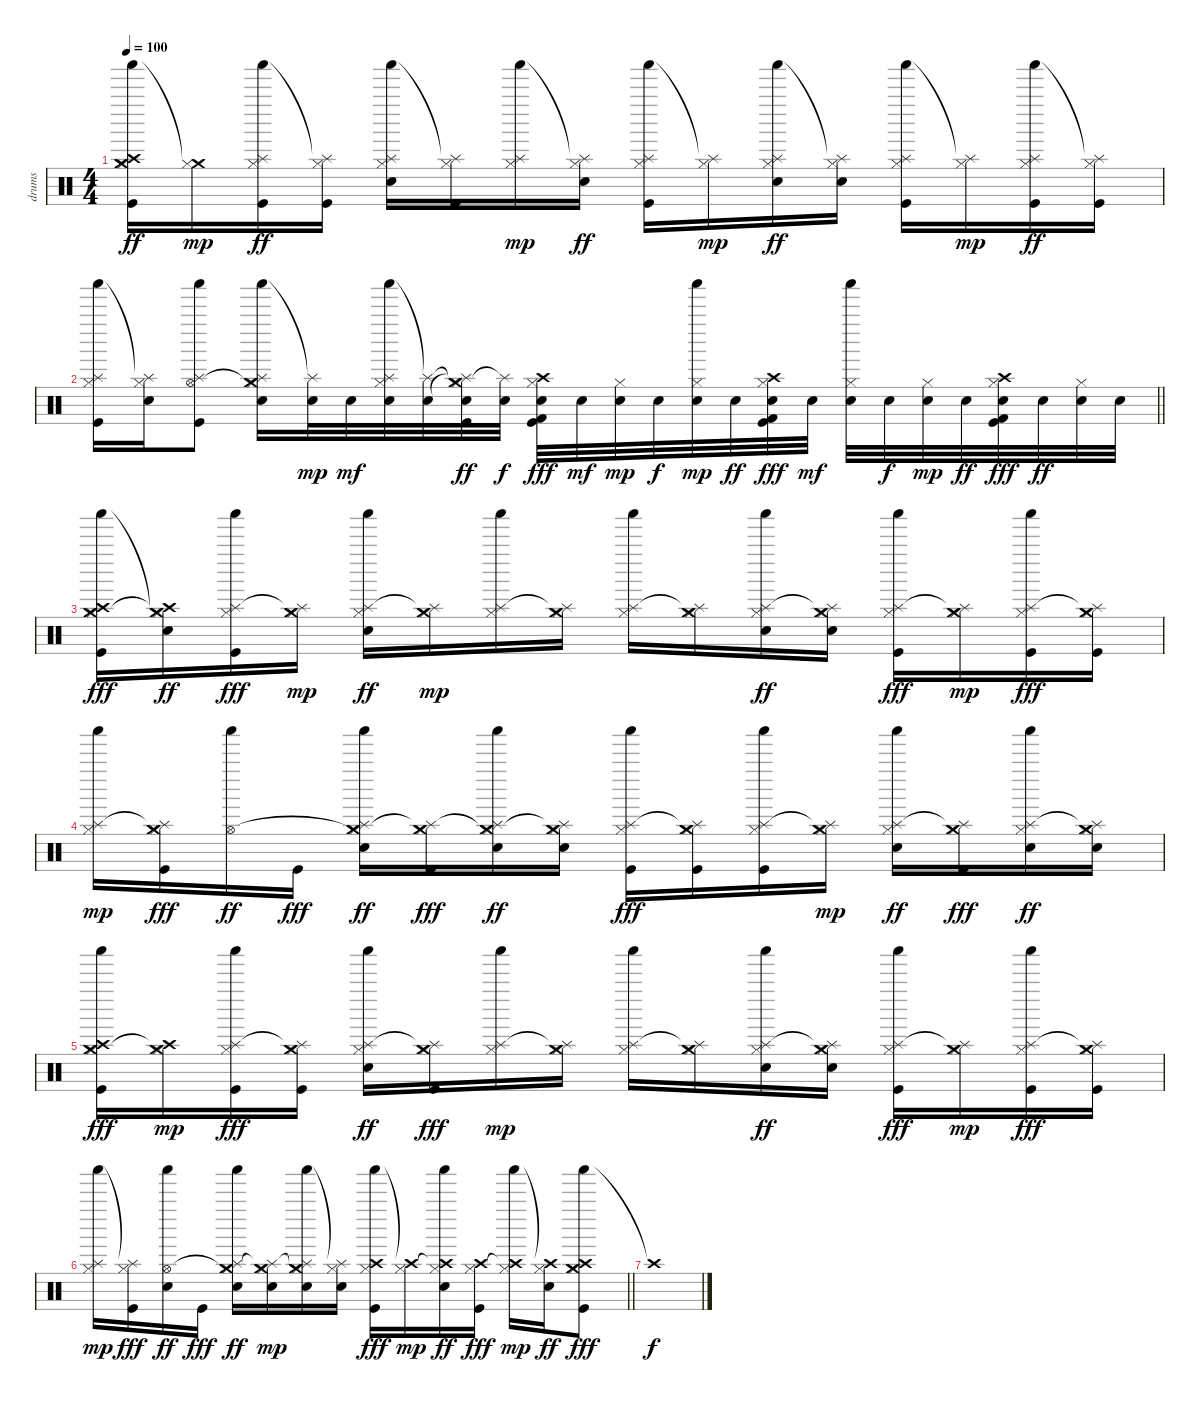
\track ("drums" "drums") {instrument percussion}
\staff {score}
\articulation defaults
\ts (4 4)
\tempo 100
\clef neutral
\ks c
("Shaker (hit)" "Crash medium (hit)" "Crash high (hit)" "Hi-Hat (closed)" "Kick (hit)").16{dy ff} ("Crash medium (hit)"{t} "Hi-Hat (closed)").16{dy mp} ("Shaker (hit)" "Splash (hit)" "Hi-Hat (closed)" "Kick (hit)").16{dy ff} ("Splash (hit)"{t} "Hi-Hat (closed)" "Kick (hit)").16 ("Shaker (hit)" "Splash (hit)" "Hi-Hat (closed)" "Electric Snare (hit)").16 ("Splash (hit)"{t} "Hi-Hat (closed)" "Kick (hit)").16 ("Shaker (hit)" "Splash (hit)" "Hi-Hat (closed)").16{dy mp} ("Splash (hit)"{t} "Hi-Hat (closed)" "Electric Snare (hit)").16{dy ff} ("Shaker (hit)" "Splash (hit)" "Hi-Hat (closed)" "Kick (hit)").16 ("Splash (hit)"{t} "Hi-Hat (closed)").16{dy mp} ("Shaker (hit)" "Splash (hit)" "Hi-Hat (closed)" "Electric Snare (hit)").16{dy ff} ("Splash (hit)"{t} "Hi-Hat (closed)" "Electric Snare (hit)").16 ("Shaker (hit)" "Splash (hit)" "Hi-Hat (closed)" "Kick (hit)").16 ("Splash (hit)"{t} "Hi-Hat (closed)").16{dy mp} ("Shaker (hit)" "Splash (hit)" "Hi-Hat (closed)" "Kick (hit)").16{dy ff} ("Splash (hit)"{t} "Hi-Hat (closed)" "Kick (hit)").16 |
\barLineRight lightlight
("Shaker (hit)" "Splash (hit)" "Hi-Hat (closed)" "Kick (hit)").16 ("Splash (hit)"{t} "Hi-Hat (closed)" "Electric Snare (hit)").16 ("Shaker (hit)" "Hi-Hat (open)" "Splash (hit)" "Kick (hit)").8 ("Shaker (hit)" "Crash medium (hit)"{t} "Splash (hit)" "Hi-Hat (closed)" "Electric Snare (hit)").16 ("Splash (hit)"{t} "Electric Snare (hit)").32{dy mp} "Electric Snare (hit)".32{dy mf} ("Shaker (hit)" "Splash (hit)" "Hi-Hat (closed)" "Electric Snare (hit)").32 ("Splash (hit)"{t} "Electric Snare (hit)").32 ("Crash medium (hit)"{t} "Splash (hit)"{t} "Hi-Hat (closed)" "Electric Snare (hit)" "Kick (hit)").32{dy ff} ("Splash (hit)"{t} "Electric Snare (hit)").32{dy f} ("Crash high (hit)" "Kick (hit) 2" "Hi-Hat (closed)" "Electric Snare (hit)" "Kick (hit)").32{dy fff} "Electric Snare (hit)".32{dy mf} ("Hi-Hat (closed)" "Electric Snare (hit)").32{dy mp} "Electric Snare (hit)".32{dy f} ("Shaker (hit)" "Hi-Hat (closed)" "Electric Snare (hit)").32{dy mp} "Electric Snare (hit)".32{dy ff} ("Crash high (hit)" "Kick (hit) 2" "Hi-Hat (closed)" "Electric Snare (hit)" "Kick (hit)").32{dy fff} "Electric Snare (hit)".32{dy mf} ("Shaker (hit)" "Hi-Hat (closed)" "Electric Snare (hit)").32 "Electric Snare (hit)".32{dy f} ("Hi-Hat (closed)" "Electric Snare (hit)").32{dy mp} "Electric Snare (hit)".32{dy ff} ("Crash high (hit)" "Kick (hit) 2" "Hi-Hat (closed)" "Electric Snare (hit)" "Kick (hit)").32{dy fff} "Electric Snare (hit)".32{dy ff} ("Hi-Hat (closed)" "Electric Snare (hit)").32 "Electric Snare (hit)".32 |
("Shaker (hit)" "Crash medium (hit)" "Crash high (hit)" "Hi-Hat (closed)" "Kick (hit)").16{dy fff} ("Crash medium (hit)"{t} "Crash high (hit)"{t} "Hi-Hat (closed)" "Electric Snare (hit)").16{dy ff} ("Shaker (hit)" "Splash (hit)" "Hi-Hat (closed)" "Kick (hit)").16{dy fff} ("Crash medium (hit)" "Splash (hit)"{t} "Hi-Hat (closed)").16{dy mp} ("Shaker (hit)" "Splash (hit)" "Hi-Hat (closed)" "Electric Snare (hit)").16{dy ff} ("Crash medium (hit)" "Splash (hit)"{t} "Hi-Hat (closed)").16{dy mp} ("Shaker (hit)" "Splash (hit)" "Hi-Hat (closed)").16 ("Crash medium (hit)" "Splash (hit)"{t} "Hi-Hat (closed)").16 ("Shaker (hit)" "Splash (hit)" "Hi-Hat (closed)").16 ("Crash medium (hit)" "Splash (hit)"{t} "Hi-Hat (closed)").16 ("Shaker (hit)" "Splash (hit)" "Hi-Hat (closed)" "Electric Snare (hit)").16{dy ff} ("Crash medium (hit)" "Splash (hit)"{t} "Hi-Hat (closed)" "Electric Snare (hit)").16 ("Shaker (hit)" "Splash (hit)" "Hi-Hat (closed)" "Kick (hit)").16{dy fff} ("Crash medium (hit)" "Splash (hit)"{t} "Hi-Hat (closed)").16{dy mp} ("Shaker (hit)" "Splash (hit)" "Hi-Hat (closed)" "Kick (hit)").16{dy fff} ("Crash medium (hit)" "Splash (hit)"{t} "Hi-Hat (closed)" "Kick (hit)").16 |
("Shaker (hit)" "Splash (hit)" "Hi-Hat (closed)").16{dy mp} ("Crash medium (hit)" "Splash (hit)"{t} "Hi-Hat (closed)" "Kick (hit)").16{dy fff} ("Shaker (hit)" "Hi-Hat (open)").16{dy ff} "Kick (hit)".16{dy fff} ("Shaker (hit)" "Crash medium (hit)"{t} "Splash (hit)" "Hi-Hat (closed)" "Electric Snare (hit)").16{dy ff} ("Crash medium (hit)" "Splash (hit)"{t} "Hi-Hat (closed)" "Kick (hit)").16{dy fff} ("Shaker (hit)" "Crash medium (hit)"{t} "Splash (hit)" "Hi-Hat (closed)" "Electric Snare (hit)").16{dy ff} ("Crash medium (hit)" "Splash (hit)"{t} "Hi-Hat (closed)" "Electric Snare (hit)").16 ("Shaker (hit)" "Splash (hit)" "Hi-Hat (closed)" "Kick (hit)").16{dy fff} ("Crash medium (hit)" "Splash (hit)"{t} "Hi-Hat (closed)" "Kick (hit)").16 ("Shaker (hit)" "Splash (hit)" "Hi-Hat (closed)" "Kick (hit)").16 ("Crash medium (hit)" "Splash (hit)"{t} "Hi-Hat (closed)").16{dy mp} ("Shaker (hit)" "Splash (hit)" "Hi-Hat (closed)" "Electric Snare (hit)").16{dy ff} ("Crash medium (hit)" "Splash (hit)"{t} "Hi-Hat (closed)" "Kick (hit)").16{dy fff} ("Shaker (hit)" "Splash (hit)" "Hi-Hat (closed)" "Electric Snare (hit)").16{dy ff} ("Crash medium (hit)" "Splash (hit)"{t} "Hi-Hat (closed)" "Electric Snare (hit)").16 |
("Shaker (hit)" "Crash medium (hit)" "Crash high (hit)" "Hi-Hat (closed)" "Kick (hit)").16{dy fff} ("Crash medium (hit)" "Crash high (hit)"{t} "Hi-Hat (closed)").16{dy mp} ("Shaker (hit)" "Splash (hit)" "Hi-Hat (closed)" "Kick (hit)").16{dy fff} ("Crash medium (hit)" "Splash (hit)"{t} "Hi-Hat (closed)" "Kick (hit)").16 ("Shaker (hit)" "Splash (hit)" "Hi-Hat (closed)" "Electric Snare (hit)").16{dy ff} ("Crash medium (hit)" "Splash (hit)"{t} "Hi-Hat (closed)" "Kick (hit)").16{dy fff} ("Shaker (hit)" "Splash (hit)" "Hi-Hat (closed)").16{dy mp} ("Crash medium (hit)" "Splash (hit)"{t} "Hi-Hat (closed)").16 ("Shaker (hit)" "Splash (hit)" "Hi-Hat (closed)").16 ("Crash medium (hit)" "Splash (hit)"{t} "Hi-Hat (closed)").16 ("Shaker (hit)" "Splash (hit)" "Hi-Hat (closed)" "Electric Snare (hit)").16{dy ff} ("Crash medium (hit)" "Splash (hit)"{t} "Hi-Hat (closed)" "Electric Snare (hit)").16 ("Shaker (hit)" "Splash (hit)" "Hi-Hat (closed)" "Kick (hit)").16{dy fff} ("Crash medium (hit)" "Splash (hit)"{t} "Hi-Hat (closed)").16{dy mp} ("Shaker (hit)" "Splash (hit)" "Hi-Hat (closed)" "Kick (hit)").16{dy fff} ("Crash medium (hit)" "Splash (hit)"{t} "Hi-Hat (closed)" "Kick (hit)").16 |
\barLineRight lightlight
("Shaker (hit)" "Splash (hit)" "Hi-Hat (closed)").16{dy mp} ("Splash (hit)"{t} "Hi-Hat (closed)" "Kick (hit)").16{dy fff} ("Shaker (hit)" "Hi-Hat (open)" "Electric Snare (hit)").16{dy ff} "Kick (hit)".16{dy fff} ("Shaker (hit)" "Crash medium (hit)"{t} "Splash (hit)" "Hi-Hat (closed)" "Electric Snare (hit)").16{dy ff} ("Crash medium (hit)" "Splash (hit)"{t} "Hi-Hat (closed)" "Electric Snare (hit)").16{dy mp} ("Shaker (hit)" "Crash medium (hit)"{t} "Splash (hit)" "Hi-Hat (closed)" "Electric Snare (hit)").16 ("Splash (hit)"{t} "Hi-Hat (closed)" "Electric Snare (hit)").16 ("Shaker (hit)" "Crash high (hit)" "Hi-Hat (closed)" "Kick (hit)").16{dy fff} ("Crash high (hit)"{t} "Hi-Hat (closed)").16{dy mp} ("Shaker (hit)" "Crash high (hit)"{t} "Hi-Hat (closed)" "Electric Snare (hit)").16{dy ff} ("Crash high (hit)" "Hi-Hat (closed)" "Kick (hit)").16{dy fff} ("Shaker (hit)" "Crash high (hit)"{t} "Hi-Hat (closed)").16{dy mp} ("Crash high (hit)"{t} "Hi-Hat (closed)" "Electric Snare (hit)").16{dy ff} ("Shaker (hit)" "Crash medium (hit)" "Crash high (hit)" "Hi-Hat (closed)" "Kick (hit)").8{dy fff} |
"Crash high (hit)"{t}.1{dy f}
